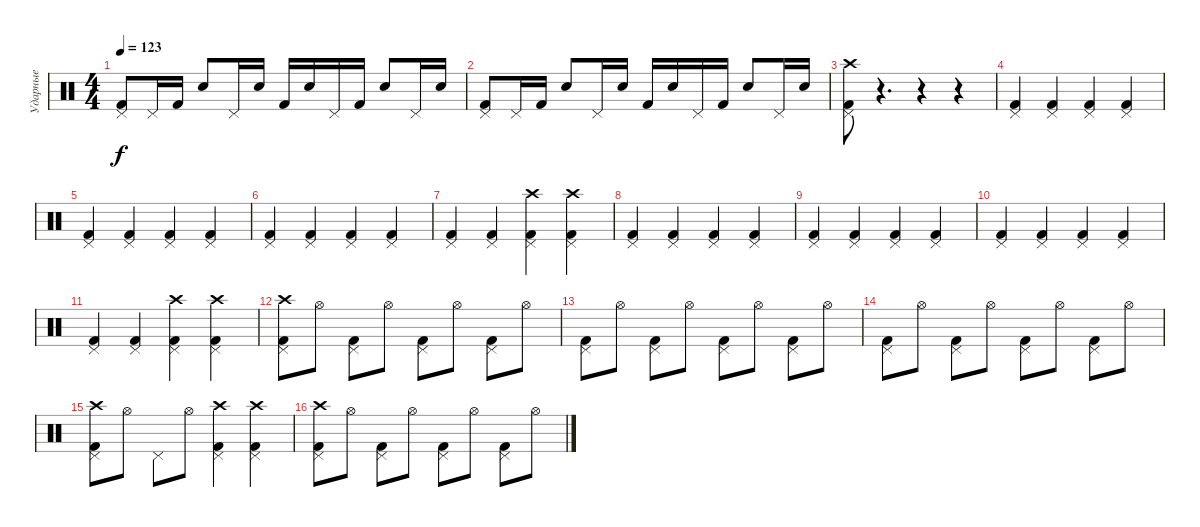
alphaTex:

\track ("Ударные" "Ударные") {instrument percussion}
\staff {score}
\articulation defaults
\ts (4 4)
\tempo 123
\clef neutral
\ks c
("Kick (hit) 2" "Pedal Hi-Hat (hit)").8{dy f} "Pedal Hi-Hat (hit)".16 "Kick (hit) 2".16 "Snare (hit) 2".8 "Pedal Hi-Hat (hit)".16 "Snare (hit) 2".16 "Kick (hit) 2".16 "Snare (hit) 2".16 "Pedal Hi-Hat (hit)".16 "Kick (hit) 2".16 "Snare (hit) 2".8 "Pedal Hi-Hat (hit)".16 "Snare (hit) 2".16 |
("Kick (hit) 2" "Pedal Hi-Hat (hit)").8 "Pedal Hi-Hat (hit)".16 "Kick (hit) 2".16 "Snare (hit) 2".8 "Pedal Hi-Hat (hit)".16 "Snare (hit) 2".16 "Kick (hit) 2".16 "Snare (hit) 2".16 "Pedal Hi-Hat (hit)".16 "Kick (hit) 2".16 "Snare (hit) 2".8 "Pedal Hi-Hat (hit)".16 "Snare (hit) 2".16 |
("Kick (hit) 2" "Pedal Hi-Hat (hit)" "Crash high (hit)").8 r.4{d} r.4 r.4 |
("Kick (hit) 2" "Pedal Hi-Hat (hit)").4 ("Kick (hit) 2" "Pedal Hi-Hat (hit)").4 ("Kick (hit) 2" "Pedal Hi-Hat (hit)").4 ("Kick (hit) 2" "Pedal Hi-Hat (hit)").4 |
("Kick (hit) 2" "Pedal Hi-Hat (hit)").4 ("Kick (hit) 2" "Pedal Hi-Hat (hit)").4 ("Kick (hit) 2" "Pedal Hi-Hat (hit)").4 ("Kick (hit) 2" "Pedal Hi-Hat (hit)").4 |
("Kick (hit) 2" "Pedal Hi-Hat (hit)").4 ("Kick (hit) 2" "Pedal Hi-Hat (hit)").4 ("Kick (hit) 2" "Pedal Hi-Hat (hit)").4 ("Kick (hit) 2" "Pedal Hi-Hat (hit)").4 |
("Kick (hit) 2" "Pedal Hi-Hat (hit)").4 ("Kick (hit) 2" "Pedal Hi-Hat (hit)").4 ("Kick (hit) 2" "Pedal Hi-Hat (hit)" "Crash high (hit)").4 ("Kick (hit) 2" "Pedal Hi-Hat (hit)" "Crash high (hit)").4 |
("Kick (hit) 2" "Pedal Hi-Hat (hit)").4 ("Kick (hit) 2" "Pedal Hi-Hat (hit)").4 ("Kick (hit) 2" "Pedal Hi-Hat (hit)").4 ("Kick (hit) 2" "Pedal Hi-Hat (hit)").4 |
("Kick (hit) 2" "Pedal Hi-Hat (hit)").4 ("Kick (hit) 2" "Pedal Hi-Hat (hit)").4 ("Kick (hit) 2" "Pedal Hi-Hat (hit)").4 ("Kick (hit) 2" "Pedal Hi-Hat (hit)").4 |
("Kick (hit) 2" "Pedal Hi-Hat (hit)").4 ("Kick (hit) 2" "Pedal Hi-Hat (hit)").4 ("Kick (hit) 2" "Pedal Hi-Hat (hit)").4 ("Kick (hit) 2" "Pedal Hi-Hat (hit)").4 |
("Kick (hit) 2" "Pedal Hi-Hat (hit)").4 ("Kick (hit) 2" "Pedal Hi-Hat (hit)").4 ("Kick (hit) 2" "Pedal Hi-Hat (hit)" "Crash high (hit)").4 ("Kick (hit) 2" "Pedal Hi-Hat (hit)" "Crash high (hit)").4 |
("Kick (hit) 2" "Pedal Hi-Hat (hit)" "Crash high (hit)").8 "Hi-Hat (open)".8 ("Kick (hit) 2" "Pedal Hi-Hat (hit)").8 "Hi-Hat (open)".8 ("Kick (hit) 2" "Pedal Hi-Hat (hit)").8 "Hi-Hat (open)".8 ("Kick (hit) 2" "Pedal Hi-Hat (hit)").8 "Hi-Hat (open)".8 |
("Kick (hit) 2" "Pedal Hi-Hat (hit)").8 "Hi-Hat (open)".8 ("Kick (hit) 2" "Pedal Hi-Hat (hit)").8 "Hi-Hat (open)".8 ("Kick (hit) 2" "Pedal Hi-Hat (hit)").8 "Hi-Hat (open)".8 ("Kick (hit) 2" "Pedal Hi-Hat (hit)").8 "Hi-Hat (open)".8 |
("Kick (hit) 2" "Pedal Hi-Hat (hit)").8 "Hi-Hat (open)".8 ("Kick (hit) 2" "Pedal Hi-Hat (hit)").8 "Hi-Hat (open)".8 ("Kick (hit) 2" "Pedal Hi-Hat (hit)").8 "Hi-Hat (open)".8 ("Kick (hit) 2" "Pedal Hi-Hat (hit)").8 "Hi-Hat (open)".8 |
("Kick (hit) 2" "Pedal Hi-Hat (hit)" "Crash high (hit)").8 "Hi-Hat (open)".8 "Pedal Hi-Hat (hit)".8 "Hi-Hat (open)".8 ("Kick (hit) 2" "Pedal Hi-Hat (hit)" "Crash high (hit)").4 ("Kick (hit) 2" "Pedal Hi-Hat (hit)" "Crash high (hit)").4 |
("Kick (hit) 2" "Pedal Hi-Hat (hit)" "Crash high (hit)").8 "Hi-Hat (open)".8 ("Kick (hit) 2" "Pedal Hi-Hat (hit)").8 "Hi-Hat (open)".8 ("Kick (hit) 2" "Pedal Hi-Hat (hit)").8 "Hi-Hat (open)".8 ("Kick (hit) 2" "Pedal Hi-Hat (hit)").8 "Hi-Hat (open)".8
